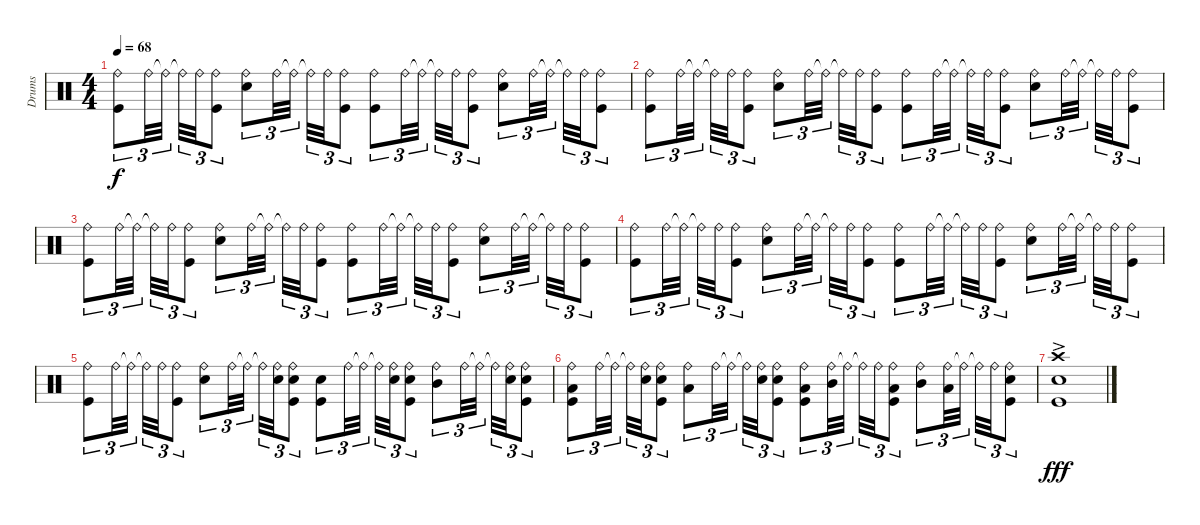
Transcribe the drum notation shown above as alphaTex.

\track ("Drums" "Drums") {instrument percussion}
\staff {score}
\articulation defaults
\ts (4 4)
\tempo 68
\clef neutral
\ks c
("Ride (bell)" "Kick (hit)").8{tu (3 2) dy f} "Ride (bell)".32{tu (3 2)} "Ride (bell)"{t}.32{tu (3 2)} "Ride (bell)"{t}.32{tu (3 2)} "Ride (bell)".32{tu (3 2)} ("Ride (bell)" "Kick (hit)").8{tu (3 2)} ("Ride (bell)" "Snare (hit) 2").8{tu (3 2)} "Ride (bell)".32{tu (3 2)} "Ride (bell)"{t}.32{tu (3 2)} "Ride (bell)"{t}.32{tu (3 2)} "Ride (bell)".32{tu (3 2)} ("Ride (bell)" "Kick (hit)").8{tu (3 2)} ("Ride (bell)" "Kick (hit)").8{tu (3 2)} "Ride (bell)".32{tu (3 2)} "Ride (bell)"{t}.32{tu (3 2)} "Ride (bell)"{t}.32{tu (3 2)} "Ride (bell)".32{tu (3 2)} ("Ride (bell)" "Kick (hit)").8{tu (3 2)} ("Ride (bell)" "Snare (hit) 2").8{tu (3 2)} "Ride (bell)".32{tu (3 2)} "Ride (bell)"{t}.32{tu (3 2)} "Ride (bell)"{t}.32{tu (3 2)} "Ride (bell)".32{tu (3 2)} ("Ride (bell)" "Kick (hit)").8{tu (3 2)} |
("Ride (bell)" "Kick (hit)").8{tu (3 2)} "Ride (bell)".32{tu (3 2)} "Ride (bell)"{t}.32{tu (3 2)} "Ride (bell)"{t}.32{tu (3 2)} "Ride (bell)".32{tu (3 2)} ("Ride (bell)" "Kick (hit)").8{tu (3 2)} ("Ride (bell)" "Snare (hit) 2").8{tu (3 2)} "Ride (bell)".32{tu (3 2)} "Ride (bell)"{t}.32{tu (3 2)} "Ride (bell)"{t}.32{tu (3 2)} "Ride (bell)".32{tu (3 2)} ("Ride (bell)" "Kick (hit)").8{tu (3 2)} ("Ride (bell)" "Kick (hit)").8{tu (3 2)} "Ride (bell)".32{tu (3 2)} "Ride (bell)"{t}.32{tu (3 2)} "Ride (bell)"{t}.32{tu (3 2)} "Ride (bell)".32{tu (3 2)} ("Ride (bell)" "Kick (hit)").8{tu (3 2)} ("Ride (bell)" "Snare (hit) 2").8{tu (3 2)} "Ride (bell)".32{tu (3 2)} "Ride (bell)"{t}.32{tu (3 2)} "Ride (bell)"{t}.32{tu (3 2)} "Ride (bell)".32{tu (3 2)} ("Ride (bell)" "Kick (hit)").8{tu (3 2)} |
("Ride (bell)" "Kick (hit)").8{tu (3 2)} "Ride (bell)".32{tu (3 2)} "Ride (bell)"{t}.32{tu (3 2)} "Ride (bell)"{t}.32{tu (3 2)} "Ride (bell)".32{tu (3 2)} ("Ride (bell)" "Kick (hit)").8{tu (3 2)} ("Ride (bell)" "Snare (hit) 2").8{tu (3 2)} "Ride (bell)".32{tu (3 2)} "Ride (bell)"{t}.32{tu (3 2)} "Ride (bell)"{t}.32{tu (3 2)} "Ride (bell)".32{tu (3 2)} ("Ride (bell)" "Kick (hit)").8{tu (3 2)} ("Ride (bell)" "Kick (hit)").8{tu (3 2)} "Ride (bell)".32{tu (3 2)} "Ride (bell)"{t}.32{tu (3 2)} "Ride (bell)"{t}.32{tu (3 2)} "Ride (bell)".32{tu (3 2)} ("Ride (bell)" "Kick (hit)").8{tu (3 2)} ("Ride (bell)" "Snare (hit) 2").8{tu (3 2)} "Ride (bell)".32{tu (3 2)} "Ride (bell)"{t}.32{tu (3 2)} "Ride (bell)"{t}.32{tu (3 2)} "Ride (bell)".32{tu (3 2)} ("Ride (bell)" "Kick (hit)").8{tu (3 2)} |
("Ride (bell)" "Kick (hit)").8{tu (3 2)} "Ride (bell)".32{tu (3 2)} "Ride (bell)"{t}.32{tu (3 2)} "Ride (bell)"{t}.32{tu (3 2)} "Ride (bell)".32{tu (3 2)} ("Ride (bell)" "Kick (hit)").8{tu (3 2)} ("Ride (bell)" "Snare (hit) 2").8{tu (3 2)} "Ride (bell)".32{tu (3 2)} "Ride (bell)"{t}.32{tu (3 2)} "Ride (bell)"{t}.32{tu (3 2)} "Ride (bell)".32{tu (3 2)} ("Ride (bell)" "Kick (hit)").8{tu (3 2)} ("Ride (bell)" "Kick (hit)").8{tu (3 2)} "Ride (bell)".32{tu (3 2)} "Ride (bell)"{t}.32{tu (3 2)} "Ride (bell)"{t}.32{tu (3 2)} "Ride (bell)".32{tu (3 2)} ("Ride (bell)" "Kick (hit)").8{tu (3 2)} ("Ride (bell)" "Snare (hit) 2").8{tu (3 2)} "Ride (bell)".32{tu (3 2)} "Ride (bell)"{t}.32{tu (3 2)} "Ride (bell)"{t}.32{tu (3 2)} "Ride (bell)".32{tu (3 2)} ("Ride (bell)" "Kick (hit)").8{tu (3 2)} |
("Ride (bell)" "Kick (hit)").8{tu (3 2)} "Ride (bell)".32{tu (3 2)} "Ride (bell)"{t}.32{tu (3 2)} "Ride (bell)"{t}.32{tu (3 2)} "Ride (bell)".32{tu (3 2)} ("Ride (bell)" "Kick (hit)").8{tu (3 2)} ("Ride (bell)" "Snare (hit) 2").8{tu (3 2)} "Ride (bell)".32{tu (3 2)} "Ride (bell)"{t}.32{tu (3 2)} "Ride (bell)"{t}.32{tu (3 2)} ("Ride (bell)" "Snare (hit) 2").32{tu (3 2)} ("Ride (bell)" "Snare (hit) 2" "Kick (hit)").8{tu (3 2)} ("Snare (hit) 2" "Kick (hit)").8{tu (3 2)} "Ride (bell)".32{tu (3 2)} "Ride (bell)"{t}.32{tu (3 2)} "Ride (bell)"{t}.32{tu (3 2)} ("Ride (bell)" "Snare (hit) 2").32{tu (3 2)} ("Ride (bell)" "Snare (hit) 2" "Kick (hit)").8{tu (3 2)} ("Ride (bell)" "Mid Tom (hit)").8{tu (3 2)} "Ride (bell)".32{tu (3 2)} "Ride (bell)"{t}.32{tu (3 2)} "Ride (bell)"{t}.32{tu (3 2)} ("Ride (bell)" "Snare (hit) 2").32{tu (3 2)} ("Ride (bell)" "Snare (hit) 2" "Kick (hit)").8{tu (3 2)} |
("Ride (bell)" "Low Tom (hit)" "Kick (hit)").8{tu (3 2)} "Ride (bell)".32{tu (3 2)} "Ride (bell)"{t}.32{tu (3 2)} "Ride (bell)"{t}.32{tu (3 2)} ("Ride (bell)" "Snare (hit) 2").32{tu (3 2)} ("Ride (bell)" "Snare (hit) 2" "Kick (hit)").8{tu (3 2)} ("Ride (bell)" "Low Tom (hit)").8{tu (3 2)} "Ride (bell)".32{tu (3 2)} "Ride (bell)"{t}.32{tu (3 2)} "Ride (bell)"{t}.32{tu (3 2)} ("Ride (bell)" "Snare (hit) 2").32{tu (3 2)} ("Ride (bell)" "Snare (hit) 2" "Kick (hit)").8{tu (3 2)} ("Ride (bell)" "Low Tom (hit)" "Kick (hit)").8{tu (3 2)} ("Ride (bell)" "Mid Tom (hit)").32{tu (3 2)} "Ride (bell)"{t}.32{tu (3 2)} "Ride (bell)"{t}.32{tu (3 2)} "Ride (bell)".32{tu (3 2)} ("Ride (bell)" "Low Tom (hit)" "Kick (hit)").8{tu (3 2)} ("Ride (bell)" "Mid Tom (hit)").8{tu (3 2)} ("Ride (bell)" "Low Tom (hit)").32{tu (3 2)} "Ride (bell)"{t}.32{tu (3 2)} "Ride (bell)"{t}.32{tu (3 2)} "Ride (bell)".32{tu (3 2)} ("Ride (bell)" "Snare (hit) 2" "Kick (hit)").8{tu (3 2)} |
("Crash high (hit)"{ac} "Snare (hit) 2" "Kick (hit)"{ac}).1{dy fff}
